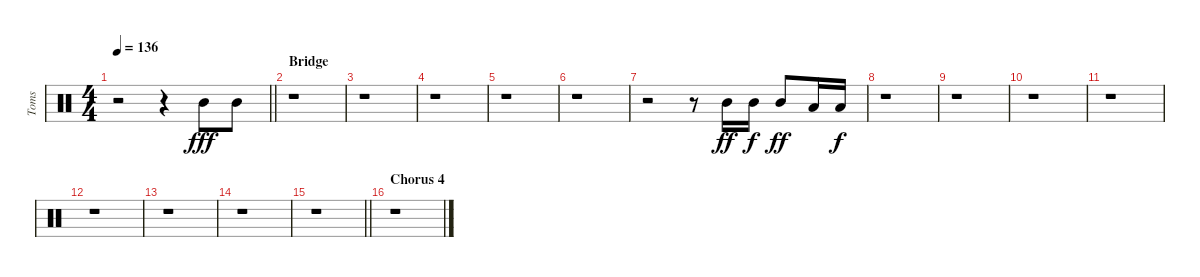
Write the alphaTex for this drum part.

\track ("Toms" "Toms") {instrument percussion}
\staff {score}
\articulation defaults
\ts (4 4)
\tempo 136
\clef neutral
\barLineRight lightlight
\ks c
r.2{dy ff} r.4{beam merge} "Mid Tom (hit)".8{dy fff balance 8} "Mid Tom (hit)".8 |
\section ("" "Bridge")
r.1 |
r.1 |
r.1 |
r.1 |
r.1 |
r.2{volume 9} r.8 "Mid Tom (hit)".16{dy ff} "Mid Tom (hit)".16{dy f} "Mid Tom (hit)".8{dy ff} "Low Tom (hit)".16{balance 5} "Low Tom (hit)".16{dy f} |
r.1 |
r.1 |
r.1 |
r.1 |
r.1 |
r.1 |
r.1 |
\barLineRight lightlight
r.1{volume 13} |
\section ("" "Chorus 4")
r.1
